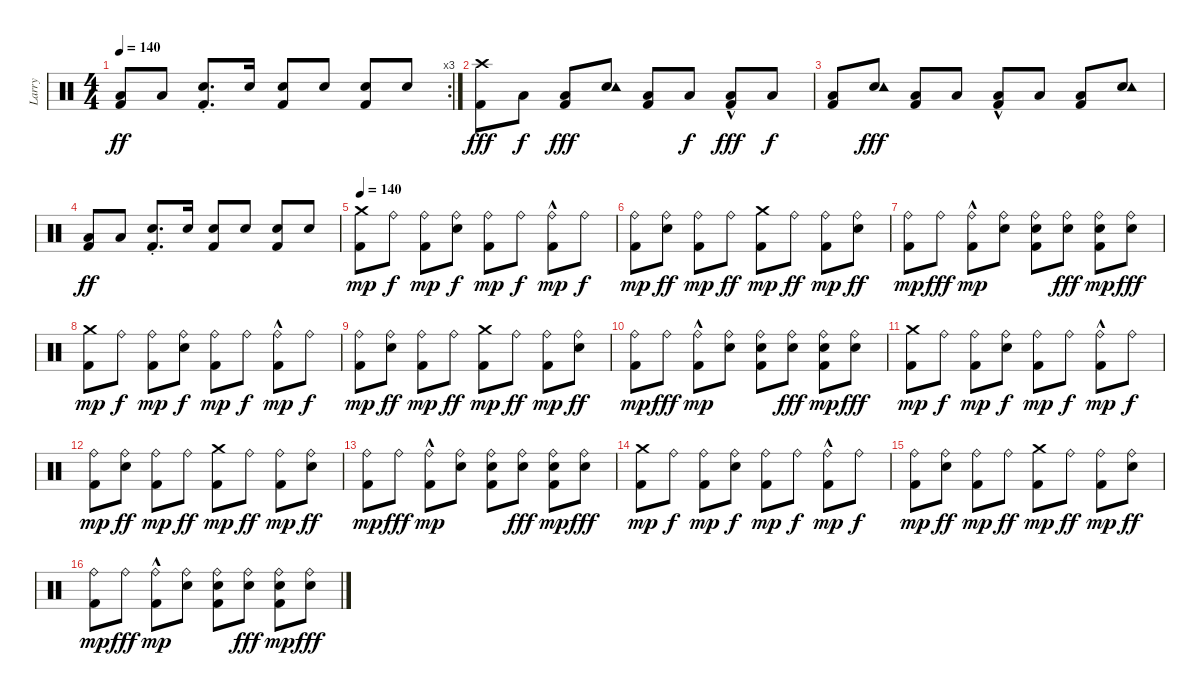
\track ("Larry" "Larry") {instrument percussion}
\staff {score}
\articulation defaults
\rc 3
\ts (4 4)
\tempo 140
\clef neutral
\ks c
("Low Floor Tom (hit)" "Kick (hit) 2").8{dy ff} "Low Floor Tom (hit)".8 ("Electric Snare (hit)"{st} "Kick (hit) 2").8{d} "Electric Snare (hit)".16 ("Electric Snare (hit)" "Kick (hit) 2").8 "Electric Snare (hit)".8 ("Electric Snare (hit)" "Kick (hit) 2").8 "Electric Snare (hit)".8 |
("Crash high (hit)" "Kick (hit) 2").8{dy fff} "Low Floor Tom (hit)".8{dy f} ("Low Floor Tom (hit)" "Kick (hit) 2").8{dy fff} ("Electric Snare (hit)" "Tambourine (hit)").8 ("Low Floor Tom (hit)" "Kick (hit) 2").8 "Low Floor Tom (hit)".8{dy f} ("Low Floor Tom (hit)"{hac} "Kick (hit) 2").8{dy fff} "Low Floor Tom (hit)".8{dy f} |
("Low Floor Tom (hit)" "Kick (hit) 2").8 ("Electric Snare (hit)" "Tambourine (hit)").8{dy fff} ("Low Floor Tom (hit)" "Kick (hit) 2").8 "Low Floor Tom (hit)".8 ("Low Floor Tom (hit)"{hac} "Kick (hit) 2").8 "Low Floor Tom (hit)".8 ("Low Floor Tom (hit)" "Kick (hit) 2").8 ("Electric Snare (hit)" "Tambourine (hit)").8 |
("Low Floor Tom (hit)" "Kick (hit) 2").8{dy ff} "Low Floor Tom (hit)".8 ("Electric Snare (hit)"{st} "Kick (hit) 2").8{d} "Electric Snare (hit)".16 ("Electric Snare (hit)" "Kick (hit) 2").8 "Electric Snare (hit)".8 ("Electric Snare (hit)" "Kick (hit) 2").8 "Electric Snare (hit)".8 |
\tempo 140
("Crash medium (hit)" "Kick (hit) 2").8{dy mp} "Ride (bell)".8{dy f} ("Ride (bell)" "Kick (hit) 2").8{dy mp} ("Ride (bell)" "Electric Snare (hit)").8{dy f} ("Ride (bell)" "Kick (hit) 2").8{dy mp} "Ride (bell)".8{dy f} ("Ride (bell)"{hac} "Kick (hit) 2").8{dy mp} "Ride (bell)".8{dy f} |
("Ride (bell)" "Kick (hit) 2").8{dy mp} ("Ride (bell)" "Electric Snare (hit)").8{dy ff} ("Ride (bell)" "Kick (hit) 2").8{dy mp} "Ride (bell)".8{dy ff} ("Crash medium (hit)" "Kick (hit) 2").8{dy mp} "Ride (bell)".8{dy ff} ("Ride (bell)" "Kick (hit) 2").8{dy mp} ("Ride (bell)" "Electric Snare (hit)").8{dy ff} |
("Ride (bell)" "Kick (hit) 2").8{dy mp} "Ride (bell)".8{dy fff} ("Ride (bell)"{hac} "Kick (hit) 2").8{dy mp} ("Ride (bell)" "Electric Snare (hit)").8 ("Ride (bell)" "Electric Snare (hit)" "Kick (hit) 2").8 ("Ride (bell)" "Electric Snare (hit)").8{dy fff} ("Ride (bell)" "Electric Snare (hit)" "Kick (hit) 2").8{dy mp} ("Ride (bell)" "Electric Snare (hit)").8{dy fff} |
("Crash medium (hit)" "Kick (hit) 2").8{dy mp} "Ride (bell)".8{dy f} ("Ride (bell)" "Kick (hit) 2").8{dy mp} ("Ride (bell)" "Electric Snare (hit)").8{dy f} ("Ride (bell)" "Kick (hit) 2").8{dy mp} "Ride (bell)".8{dy f} ("Ride (bell)"{hac} "Kick (hit) 2").8{dy mp} "Ride (bell)".8{dy f} |
("Ride (bell)" "Kick (hit) 2").8{dy mp} ("Ride (bell)" "Electric Snare (hit)").8{dy ff} ("Ride (bell)" "Kick (hit) 2").8{dy mp} "Ride (bell)".8{dy ff} ("Crash medium (hit)" "Kick (hit) 2").8{dy mp} "Ride (bell)".8{dy ff} ("Ride (bell)" "Kick (hit) 2").8{dy mp} ("Ride (bell)" "Electric Snare (hit)").8{dy ff} |
("Ride (bell)" "Kick (hit) 2").8{dy mp} "Ride (bell)".8{dy fff} ("Ride (bell)"{hac} "Kick (hit) 2").8{dy mp} ("Ride (bell)" "Electric Snare (hit)").8 ("Ride (bell)" "Electric Snare (hit)" "Kick (hit) 2").8 ("Ride (bell)" "Electric Snare (hit)").8{dy fff} ("Ride (bell)" "Electric Snare (hit)" "Kick (hit) 2").8{dy mp} ("Ride (bell)" "Electric Snare (hit)").8{dy fff} |
("Crash medium (hit)" "Kick (hit) 2").8{dy mp} "Ride (bell)".8{dy f} ("Ride (bell)" "Kick (hit) 2").8{dy mp} ("Ride (bell)" "Electric Snare (hit)").8{dy f} ("Ride (bell)" "Kick (hit) 2").8{dy mp} "Ride (bell)".8{dy f} ("Ride (bell)"{hac} "Kick (hit) 2").8{dy mp} "Ride (bell)".8{dy f} |
("Ride (bell)" "Kick (hit) 2").8{dy mp} ("Ride (bell)" "Electric Snare (hit)").8{dy ff} ("Ride (bell)" "Kick (hit) 2").8{dy mp} "Ride (bell)".8{dy ff} ("Crash medium (hit)" "Kick (hit) 2").8{dy mp} "Ride (bell)".8{dy ff} ("Ride (bell)" "Kick (hit) 2").8{dy mp} ("Ride (bell)" "Electric Snare (hit)").8{dy ff} |
("Ride (bell)" "Kick (hit) 2").8{dy mp} "Ride (bell)".8{dy fff} ("Ride (bell)"{hac} "Kick (hit) 2").8{dy mp} ("Ride (bell)" "Electric Snare (hit)").8 ("Ride (bell)" "Electric Snare (hit)" "Kick (hit) 2").8 ("Ride (bell)" "Electric Snare (hit)").8{dy fff} ("Ride (bell)" "Electric Snare (hit)" "Kick (hit) 2").8{dy mp} ("Ride (bell)" "Electric Snare (hit)").8{dy fff} |
("Crash medium (hit)" "Kick (hit) 2").8{dy mp} "Ride (bell)".8{dy f} ("Ride (bell)" "Kick (hit) 2").8{dy mp} ("Ride (bell)" "Electric Snare (hit)").8{dy f} ("Ride (bell)" "Kick (hit) 2").8{dy mp} "Ride (bell)".8{dy f} ("Ride (bell)"{hac} "Kick (hit) 2").8{dy mp} "Ride (bell)".8{dy f} |
("Ride (bell)" "Kick (hit) 2").8{dy mp} ("Ride (bell)" "Electric Snare (hit)").8{dy ff} ("Ride (bell)" "Kick (hit) 2").8{dy mp} "Ride (bell)".8{dy ff} ("Crash medium (hit)" "Kick (hit) 2").8{dy mp} "Ride (bell)".8{dy ff} ("Ride (bell)" "Kick (hit) 2").8{dy mp} ("Ride (bell)" "Electric Snare (hit)").8{dy ff} |
("Ride (bell)" "Kick (hit) 2").8{dy mp} "Ride (bell)".8{dy fff} ("Ride (bell)"{hac} "Kick (hit) 2").8{dy mp} ("Ride (bell)" "Electric Snare (hit)").8 ("Ride (bell)" "Electric Snare (hit)" "Kick (hit) 2").8 ("Ride (bell)" "Electric Snare (hit)").8{dy fff} ("Ride (bell)" "Electric Snare (hit)" "Kick (hit) 2").8{dy mp} ("Ride (bell)" "Electric Snare (hit)").8{dy fff}
